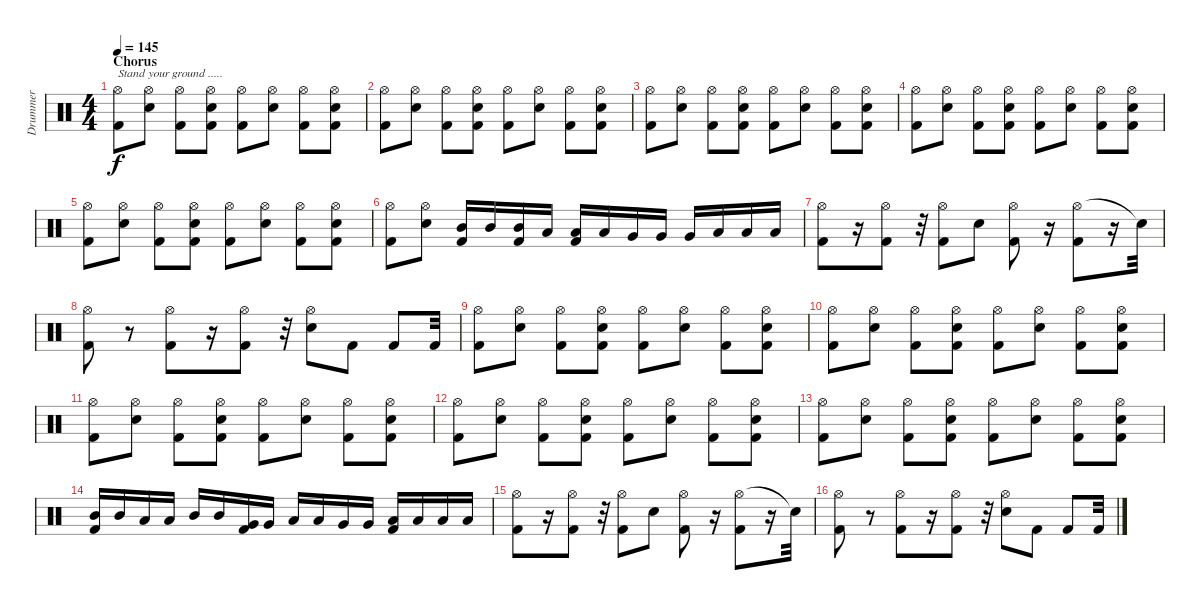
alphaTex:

\track ("Drummer" "Drummer") {instrument percussion}
\staff {score}
\articulation defaults
\ts (4 4)
\section ("" "Chorus")
\tempo 145
\clef neutral
\ks c
("Hi-Hat (open)" "Kick (hit) 2").8{txt "Stand your ground ....." dy f} ("Hi-Hat (open)" "Electric Snare (hit)").8 ("Hi-Hat (open)" "Kick (hit) 2").8 ("Hi-Hat (open)" "Electric Snare (hit)" "Kick (hit) 2").8 ("Hi-Hat (open)" "Kick (hit) 2").8 ("Hi-Hat (open)" "Electric Snare (hit)").8 ("Hi-Hat (open)" "Kick (hit) 2").8 ("Hi-Hat (open)" "Electric Snare (hit)" "Kick (hit) 2").8 |
("Hi-Hat (open)" "Kick (hit) 2").8 ("Hi-Hat (open)" "Electric Snare (hit)").8 ("Hi-Hat (open)" "Kick (hit) 2").8 ("Hi-Hat (open)" "Electric Snare (hit)" "Kick (hit) 2").8 ("Hi-Hat (open)" "Kick (hit) 2").8 ("Hi-Hat (open)" "Electric Snare (hit)").8 ("Hi-Hat (open)" "Kick (hit) 2").8 ("Hi-Hat (open)" "Electric Snare (hit)" "Kick (hit) 2").8 |
("Hi-Hat (open)" "Kick (hit) 2").8 ("Hi-Hat (open)" "Electric Snare (hit)").8 ("Hi-Hat (open)" "Kick (hit) 2").8 ("Hi-Hat (open)" "Electric Snare (hit)" "Kick (hit) 2").8 ("Hi-Hat (open)" "Kick (hit) 2").8 ("Hi-Hat (open)" "Electric Snare (hit)").8 ("Hi-Hat (open)" "Kick (hit) 2").8 ("Hi-Hat (open)" "Electric Snare (hit)" "Kick (hit) 2").8 |
("Hi-Hat (open)" "Kick (hit) 2").8 ("Hi-Hat (open)" "Electric Snare (hit)").8 ("Hi-Hat (open)" "Kick (hit) 2").8 ("Hi-Hat (open)" "Electric Snare (hit)" "Kick (hit) 2").8 ("Hi-Hat (open)" "Kick (hit) 2").8 ("Hi-Hat (open)" "Electric Snare (hit)").8 ("Hi-Hat (open)" "Kick (hit) 2").8 ("Hi-Hat (open)" "Electric Snare (hit)" "Kick (hit) 2").8 |
("Hi-Hat (open)" "Kick (hit) 2").8 ("Hi-Hat (open)" "Electric Snare (hit)").8 ("Hi-Hat (open)" "Kick (hit) 2").8 ("Hi-Hat (open)" "Electric Snare (hit)" "Kick (hit) 2").8 ("Hi-Hat (open)" "Kick (hit) 2").8 ("Hi-Hat (open)" "Electric Snare (hit)").8 ("Hi-Hat (open)" "Kick (hit) 2").8 ("Hi-Hat (open)" "Electric Snare (hit)" "Kick (hit) 2").8 |
("Hi-Hat (open)" "Kick (hit) 2").8 ("Hi-Hat (open)" "Electric Snare (hit)").8 ("Mid Tom (hit)" "Kick (hit) 2").16 "Mid Tom (hit)".16 ("Mid Tom (hit)" "Kick (hit) 2").16 "Low Tom (hit)".16 ("Low Tom (hit)" "Kick (hit) 2").16 "Low Tom (hit)".16 "Very Low Tom (hit)".16 "Very Low Tom (hit)".16 "Very Low Tom (hit)".16 "Low Floor Tom (hit)".16 "Low Floor Tom (hit)".16 "Low Floor Tom (hit)".16 |
("Hi-Hat (open)" "Kick (hit) 2").8 r.16 ("Hi-Hat (open)" "Kick (hit) 2").8 r.32 ("Hi-Hat (open)" "Kick (hit) 2").8 "Electric Snare (hit)".8 ("Hi-Hat (open)" "Kick (hit) 2").8 r.16 ("Hi-Hat (open)" "Kick (hit) 2").8 r.16 "Snare (hit)"{t}.32 |
("Hi-Hat (open)" "Kick (hit) 2").8 r.8 ("Hi-Hat (open)" "Kick (hit) 2").8 r.16 ("Hi-Hat (open)" "Kick (hit) 2").8 r.32 ("Hi-Hat (open)" "Electric Snare (hit)").8 "Kick (hit) 2".8 "Kick (hit) 2".8 "Kick (hit) 2".32 |
("Hi-Hat (open)" "Kick (hit) 2").8 ("Hi-Hat (open)" "Electric Snare (hit)").8 ("Hi-Hat (open)" "Kick (hit) 2").8 ("Hi-Hat (open)" "Electric Snare (hit)" "Kick (hit) 2").8 ("Hi-Hat (open)" "Kick (hit) 2").8 ("Hi-Hat (open)" "Electric Snare (hit)").8 ("Hi-Hat (open)" "Kick (hit) 2").8 ("Hi-Hat (open)" "Electric Snare (hit)" "Kick (hit) 2").8 |
("Hi-Hat (open)" "Kick (hit) 2").8 ("Hi-Hat (open)" "Electric Snare (hit)").8 ("Hi-Hat (open)" "Kick (hit) 2").8 ("Hi-Hat (open)" "Electric Snare (hit)" "Kick (hit) 2").8 ("Hi-Hat (open)" "Kick (hit) 2").8 ("Hi-Hat (open)" "Electric Snare (hit)").8 ("Hi-Hat (open)" "Kick (hit) 2").8 ("Hi-Hat (open)" "Electric Snare (hit)" "Kick (hit) 2").8 |
("Hi-Hat (open)" "Kick (hit) 2").8 ("Hi-Hat (open)" "Electric Snare (hit)").8 ("Hi-Hat (open)" "Kick (hit) 2").8 ("Hi-Hat (open)" "Electric Snare (hit)" "Kick (hit) 2").8 ("Hi-Hat (open)" "Kick (hit) 2").8 ("Hi-Hat (open)" "Electric Snare (hit)").8 ("Hi-Hat (open)" "Kick (hit) 2").8 ("Hi-Hat (open)" "Electric Snare (hit)" "Kick (hit) 2").8 |
("Hi-Hat (open)" "Kick (hit) 2").8 ("Hi-Hat (open)" "Electric Snare (hit)").8 ("Hi-Hat (open)" "Kick (hit) 2").8 ("Hi-Hat (open)" "Electric Snare (hit)" "Kick (hit) 2").8 ("Hi-Hat (open)" "Kick (hit) 2").8 ("Hi-Hat (open)" "Electric Snare (hit)").8 ("Hi-Hat (open)" "Kick (hit) 2").8 ("Hi-Hat (open)" "Electric Snare (hit)" "Kick (hit) 2").8 |
("Hi-Hat (open)" "Kick (hit) 2").8 ("Hi-Hat (open)" "Electric Snare (hit)").8 ("Hi-Hat (open)" "Kick (hit) 2").8 ("Hi-Hat (open)" "Electric Snare (hit)" "Kick (hit) 2").8 ("Hi-Hat (open)" "Kick (hit) 2").8 ("Hi-Hat (open)" "Electric Snare (hit)").8 ("Hi-Hat (open)" "Kick (hit) 2").8 ("Hi-Hat (open)" "Electric Snare (hit)" "Kick (hit) 2").8 |
("Mid Tom (hit)" "Kick (hit) 2").16 "Mid Tom (hit)".16 "Low Tom (hit)".16 "Low Tom (hit)".16 "Mid Tom (hit)".16 "Mid Tom (hit)".16 ("Very Low Tom (hit)" "Kick (hit) 2").16 "Very Low Tom (hit)".16 "Low Tom (hit)".16 "Low Tom (hit)".16 "Very Low Tom (hit)".16 "Very Low Tom (hit)".16 ("Low Tom (hit)" "Kick (hit) 2").16 "Low Tom (hit)".16 "Low Floor Tom (hit)".16 "Low Floor Tom (hit)".16 |
("Hi-Hat (open)" "Kick (hit) 2").8 r.16 ("Hi-Hat (open)" "Kick (hit) 2").8 r.32 ("Hi-Hat (open)" "Kick (hit) 2").8 "Electric Snare (hit)".8 ("Hi-Hat (open)" "Kick (hit) 2").8 r.16 ("Hi-Hat (open)" "Kick (hit) 2").8 r.16 "Snare (hit)"{t}.32 |
("Hi-Hat (open)" "Kick (hit) 2").8 r.8 ("Hi-Hat (open)" "Kick (hit) 2").8 r.16 ("Hi-Hat (open)" "Kick (hit) 2").8 r.32 ("Hi-Hat (open)" "Electric Snare (hit)").8 "Kick (hit) 2".8 "Kick (hit) 2".8 "Kick (hit) 2".32
